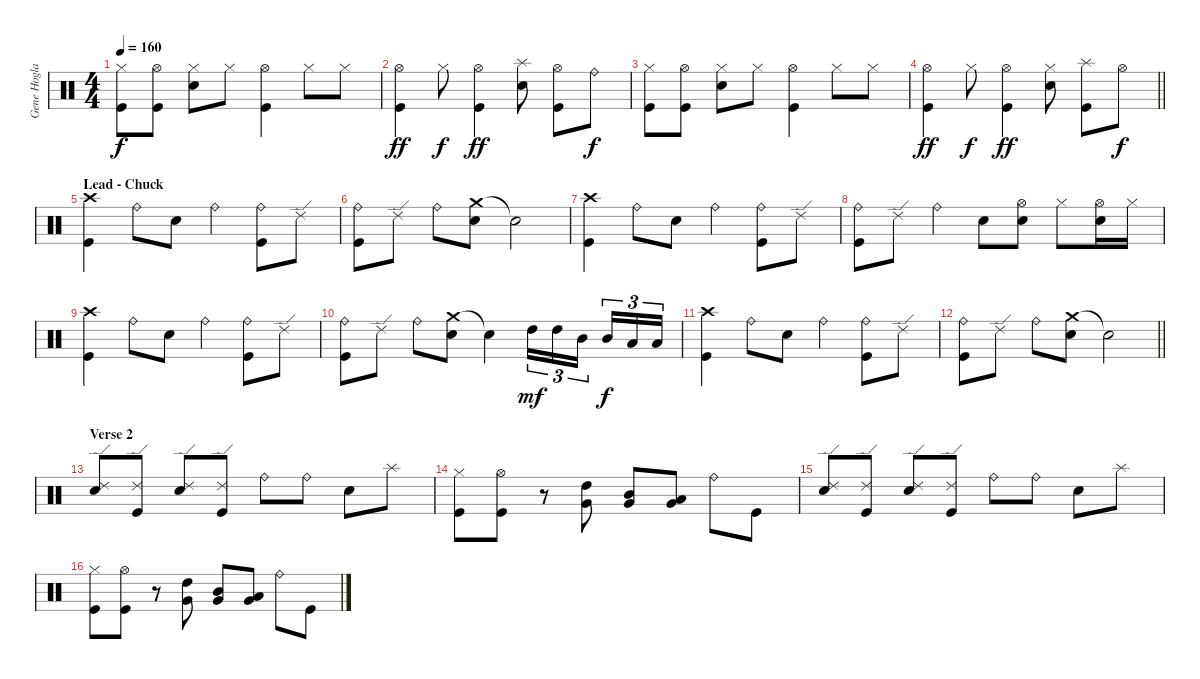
\track ("Gene Hoglan" "Gene Hogla") {instrument percussion}
\staff {score}
\articulation defaults
\ts (4 4)
\tempo 160
\clef neutral
\ks c
("Hi-Hat (closed)" "Kick (hit)").8{dy f} ("Hi-Hat (open)" "Kick (hit)").8 ("Hi-Hat (closed)" "Electric Snare (hit)").8 "Hi-Hat (closed)".8 ("Hi-Hat (open)" "Kick (hit)").4 "Hi-Hat (closed)".8 "Hi-Hat (closed)".8 |
("Hi-Hat (open)" "Kick (hit)").4{dy ff} "Hi-Hat (closed)".8{dy f} ("Hi-Hat (open)" "Kick (hit)").4{dy ff} ("Splash (hit)" "Electric Snare (hit)").8 ("Hi-Hat (open)" "Kick (hit)").8 "Ride (bell)".8{dy f} |
("Hi-Hat (closed)" "Kick (hit)").8 ("Hi-Hat (open)" "Kick (hit)").8 ("Hi-Hat (closed)" "Electric Snare (hit)").8 "Hi-Hat (closed)".8 ("Hi-Hat (open)" "Kick (hit)").4 "Hi-Hat (closed)".8 "Hi-Hat (closed)".8 |
\barLineRight lightlight
("Hi-Hat (open)" "Kick (hit)").4{dy ff} "Hi-Hat (closed)".8{dy f} ("Hi-Hat (open)" "Kick (hit)").4{dy ff} ("Hi-Hat (closed)" "Electric Snare (hit)").8 ("Splash (hit)" "Kick (hit)").8 "Hi-Hat (open)".8{dy f} |
\section ("" "Lead - Chuck")
("Crash high (hit)" "Kick (hit)").4 "Ride (bell)".8 "Electric Snare (hit)".8 "Ride (bell)".4 ("Ride (bell)" "Kick (hit)").8 "Ride (edge) 2".8 |
("Ride (bell)" "Kick (hit)").8 "Ride (edge) 2".8 "Ride (bell)".8 ("Crash medium (hit)" "Electric Snare (hit)").8 "Snare (hit)"{t}.2 |
("Crash high (hit)" "Kick (hit)").4 "Ride (bell)".8 "Electric Snare (hit)".8 "Ride (bell)".4 ("Ride (bell)" "Kick (hit)").8 "Ride (edge) 2".8 |
("Ride (bell)" "Kick (hit)").8 "Ride (edge) 2".8 "Ride (bell)".4 "Electric Snare (hit)".8 ("Hi-Hat (open)" "Electric Snare (hit)").8 "Hi-Hat (closed)".8 ("Hi-Hat (open)" "Electric Snare (hit)").16 "Hi-Hat (closed)".16 |
("Crash high (hit)" "Kick (hit)").4 "Ride (bell)".8 "Electric Snare (hit)".8 "Ride (bell)".4 ("Ride (bell)" "Kick (hit)").8 "Ride (edge) 2".8 |
("Ride (bell)" "Kick (hit)").8 "Ride (edge) 2".8 "Ride (bell)".8 ("Crash medium (hit)" "Electric Snare (hit)").8 "Snare (hit)"{t}.4 "High Tom (hit)".16{tu (3 2) dy mf} "High Tom (hit)".16{tu (3 2)} "Mid Tom (hit)".16{tu (3 2)} "Mid Tom (hit)".16{tu (3 2) dy f} "Low Tom (hit)".16{tu (3 2)} "Low Tom (hit)".16{tu (3 2)} |
("Crash high (hit)" "Kick (hit)").4 "Ride (bell)".8 "Electric Snare (hit)".8 "Ride (bell)".4 ("Ride (bell)" "Kick (hit)").8 "Ride (edge) 2".8 |
\barLineRight lightlight
("Ride (bell)" "Kick (hit)").8 "Ride (edge) 2".8 "Ride (bell)".8 ("Crash medium (hit)" "Electric Snare (hit)").8 "Snare (hit)"{t}.2 |
\section ("" "Verse 2")
("Ride (edge) 2" "Electric Snare (hit)").8 ("Ride (edge) 2" "Kick (hit)").8 ("Ride (edge) 2" "Electric Snare (hit)").8 ("Ride (edge) 2" "Kick (hit)").8 "Ride (bell)".8 "Ride (bell)".8 "Electric Snare (hit)".8 "Splash (hit)".8 |
("Hi-Hat (closed)" "Kick (hit)").8 ("Hi-Hat (open)" "Kick (hit)").8 r.8 ("High Tom (hit)" "Very Low Tom (hit)").8 ("Mid Tom (hit)" "Very Low Tom (hit)").8 ("Low Tom (hit)" "Very Low Tom (hit)").8 "Ride (bell)".8 "Kick (hit)".8 |
("Ride (edge) 2" "Electric Snare (hit)").8 ("Ride (edge) 2" "Kick (hit)").8 ("Ride (edge) 2" "Electric Snare (hit)").8 ("Ride (edge) 2" "Kick (hit)").8 "Ride (bell)".8 "Ride (bell)".8 "Electric Snare (hit)".8 "Splash (hit)".8 |
("Hi-Hat (closed)" "Kick (hit)").8 ("Hi-Hat (open)" "Kick (hit)").8 r.8 ("High Tom (hit)" "Very Low Tom (hit)").8 ("Mid Tom (hit)" "Very Low Tom (hit)").8 ("Low Tom (hit)" "Very Low Tom (hit)").8 "Ride (bell)".8 "Kick (hit)".8
